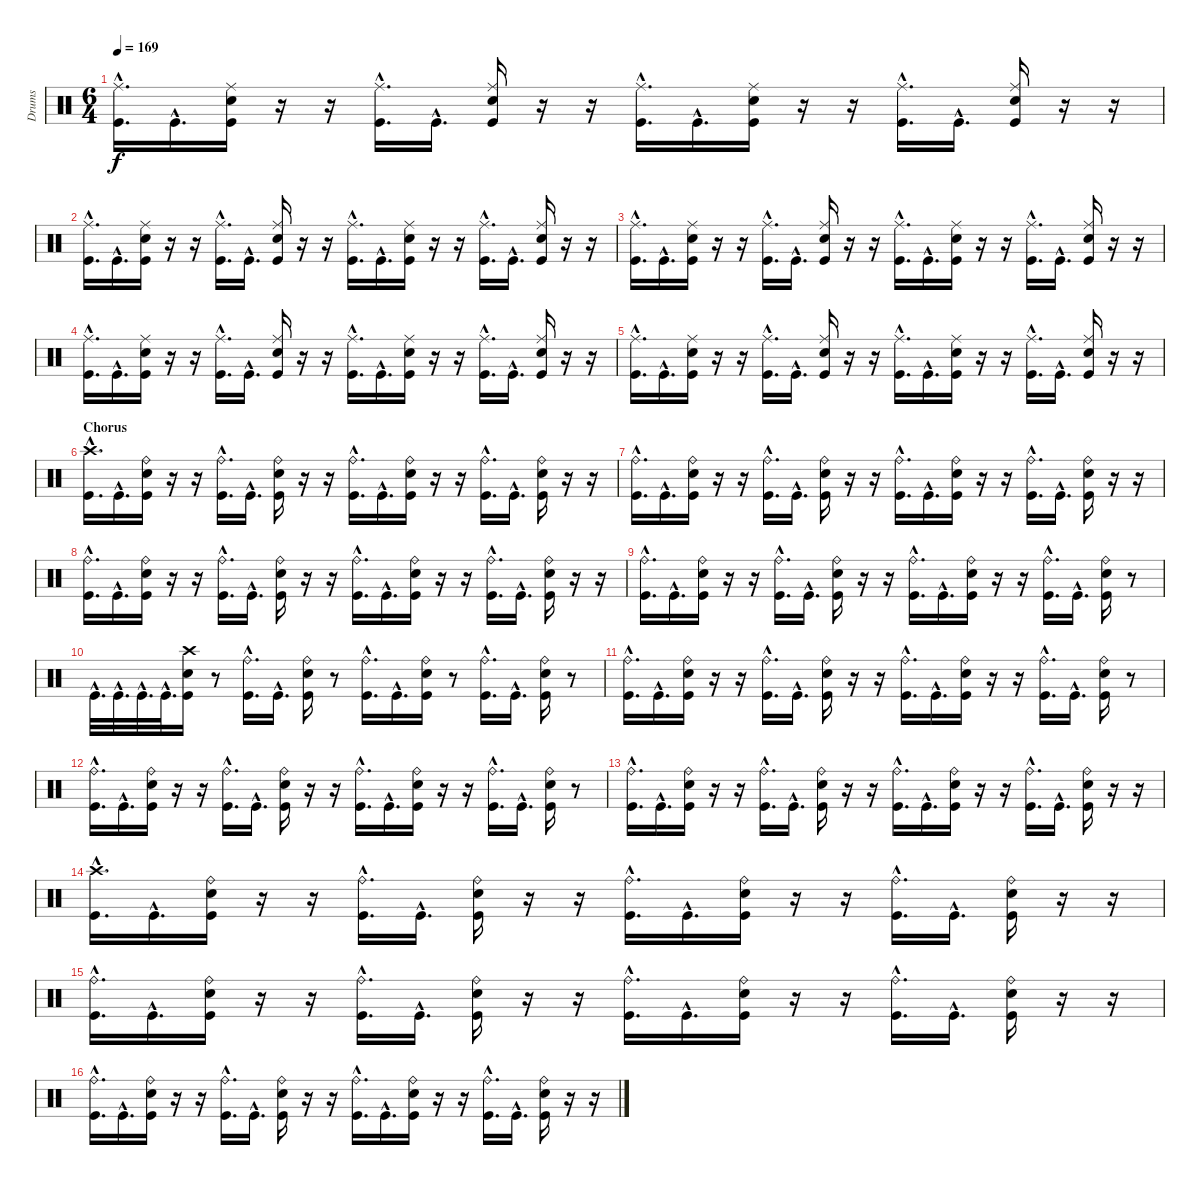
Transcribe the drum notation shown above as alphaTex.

\track ("Drums" "Drums") {instrument percussion}
\staff {score}
\articulation defaults
\ts (6 4)
\tempo 169
\clef neutral
\ks c
("Kick (hit)"{hac} "Ride (middle)"{hac}).16{d dy f} "Kick (hit)"{hac}.16{d} ("Kick (hit)" "Electric Snare (hit)" "Ride (middle)").16 r.16 r.16 ("Kick (hit)"{hac} "Ride (middle)"{hac}).16{d} "Kick (hit)"{hac}.16{d} ("Kick (hit)" "Electric Snare (hit)" "Ride (middle)").16 r.16 r.16 ("Kick (hit)"{hac} "Ride (middle)"{hac}).16{d} "Kick (hit)"{hac}.16{d} ("Kick (hit)" "Electric Snare (hit)" "Ride (middle)").16 r.16 r.16 ("Kick (hit)"{hac} "Ride (middle)"{hac}).16{d} "Kick (hit)"{hac}.16{d} ("Kick (hit)" "Electric Snare (hit)" "Ride (middle)").16 r.16 r.16 |
("Kick (hit)"{hac} "Ride (middle)"{hac}).16{d} "Kick (hit)"{hac}.16{d} ("Kick (hit)" "Electric Snare (hit)" "Ride (middle)").16 r.16 r.16 ("Kick (hit)"{hac} "Ride (middle)"{hac}).16{d} "Kick (hit)"{hac}.16{d} ("Kick (hit)" "Electric Snare (hit)" "Ride (middle)").16 r.16 r.16 ("Kick (hit)"{hac} "Ride (middle)"{hac}).16{d} "Kick (hit)"{hac}.16{d} ("Kick (hit)" "Electric Snare (hit)" "Ride (middle)").16 r.16 r.16 ("Kick (hit)"{hac} "Ride (middle)"{hac}).16{d} "Kick (hit)"{hac}.16{d} ("Kick (hit)" "Electric Snare (hit)" "Ride (middle)").16 r.16 r.16 |
("Kick (hit)"{hac} "Ride (middle)"{hac}).16{d} "Kick (hit)"{hac}.16{d} ("Kick (hit)" "Electric Snare (hit)" "Ride (middle)").16 r.16 r.16 ("Kick (hit)"{hac} "Ride (middle)"{hac}).16{d} "Kick (hit)"{hac}.16{d} ("Kick (hit)" "Electric Snare (hit)" "Ride (middle)").16 r.16 r.16 ("Kick (hit)"{hac} "Ride (middle)"{hac}).16{d} "Kick (hit)"{hac}.16{d} ("Kick (hit)" "Electric Snare (hit)" "Ride (middle)").16 r.16 r.16 ("Kick (hit)"{hac} "Ride (middle)"{hac}).16{d} "Kick (hit)"{hac}.16{d} ("Kick (hit)" "Electric Snare (hit)" "Ride (middle)").16 r.16 r.16 |
("Kick (hit)"{hac} "Ride (middle)"{hac}).16{d} "Kick (hit)"{hac}.16{d} ("Kick (hit)" "Electric Snare (hit)" "Ride (middle)").16 r.16 r.16 ("Kick (hit)"{hac} "Ride (middle)"{hac}).16{d} "Kick (hit)"{hac}.16{d} ("Kick (hit)" "Electric Snare (hit)" "Ride (middle)").16 r.16 r.16 ("Kick (hit)"{hac} "Ride (middle)"{hac}).16{d} "Kick (hit)"{hac}.16{d} ("Kick (hit)" "Electric Snare (hit)" "Ride (middle)").16 r.16 r.16 ("Kick (hit)"{hac} "Ride (middle)"{hac}).16{d} "Kick (hit)"{hac}.16{d} ("Kick (hit)" "Electric Snare (hit)" "Ride (middle)").16 r.16 r.16 |
("Kick (hit)"{hac} "Ride (middle)"{hac}).16{d} "Kick (hit)"{hac}.16{d} ("Kick (hit)" "Electric Snare (hit)" "Ride (middle)").16 r.16 r.16 ("Kick (hit)"{hac} "Ride (middle)"{hac}).16{d} "Kick (hit)"{hac}.16{d} ("Kick (hit)" "Electric Snare (hit)" "Ride (middle)").16 r.16 r.16 ("Kick (hit)"{hac} "Ride (middle)"{hac}).16{d} "Kick (hit)"{hac}.16{d} ("Kick (hit)" "Electric Snare (hit)" "Ride (middle)").16 r.16 r.16 ("Kick (hit)"{hac} "Ride (middle)"{hac}).16{d} "Kick (hit)"{hac}.16{d} ("Kick (hit)" "Electric Snare (hit)" "Ride (middle)").16 r.16 r.16 |
\section ("" "Chorus")
("Kick (hit)"{hac} "Crash high (hit)"{hac}).16{d} "Kick (hit)"{hac}.16{d} ("Kick (hit)" "Electric Snare (hit)" "Ride (bell)").16 r.16 r.16 ("Kick (hit)"{hac} "Ride (bell)"{hac}).16{d} "Kick (hit)"{hac}.16{d} ("Kick (hit)" "Electric Snare (hit)" "Ride (bell)").16 r.16 r.16 ("Kick (hit)"{hac} "Ride (bell)"{hac}).16{d} "Kick (hit)"{hac}.16{d} ("Kick (hit)" "Electric Snare (hit)" "Ride (bell)").16 r.16 r.16 ("Kick (hit)"{hac} "Ride (bell)"{hac}).16{d} "Kick (hit)"{hac}.16{d} ("Kick (hit)" "Electric Snare (hit)" "Ride (bell)").16 r.16 r.16 |
("Kick (hit)"{hac} "Ride (bell)"{hac}).16{d} "Kick (hit)"{hac}.16{d} ("Kick (hit)" "Electric Snare (hit)" "Ride (bell)").16 r.16 r.16 ("Kick (hit)"{hac} "Ride (bell)"{hac}).16{d} "Kick (hit)"{hac}.16{d} ("Kick (hit)" "Electric Snare (hit)" "Ride (bell)").16 r.16 r.16 ("Kick (hit)"{hac} "Ride (bell)"{hac}).16{d} "Kick (hit)"{hac}.16{d} ("Kick (hit)" "Electric Snare (hit)" "Ride (bell)").16 r.16 r.16 ("Kick (hit)"{hac} "Ride (bell)"{hac}).16{d} "Kick (hit)"{hac}.16{d} ("Kick (hit)" "Electric Snare (hit)" "Ride (bell)").16 r.16 r.16 |
("Kick (hit)"{hac} "Ride (bell)"{hac}).16{d} "Kick (hit)"{hac}.16{d} ("Kick (hit)" "Electric Snare (hit)" "Ride (bell)").16 r.16 r.16 ("Kick (hit)"{hac} "Ride (bell)"{hac}).16{d} "Kick (hit)"{hac}.16{d} ("Kick (hit)" "Electric Snare (hit)" "Ride (bell)").16 r.16 r.16 ("Kick (hit)"{hac} "Ride (bell)"{hac}).16{d} "Kick (hit)"{hac}.16{d} ("Kick (hit)" "Electric Snare (hit)" "Ride (bell)").16 r.16 r.16 ("Kick (hit)"{hac} "Ride (bell)"{hac}).16{d} "Kick (hit)"{hac}.16{d} ("Kick (hit)" "Electric Snare (hit)" "Ride (bell)").16 r.16 r.16 |
("Kick (hit)"{hac} "Ride (bell)"{hac}).16{d} "Kick (hit)"{hac}.16{d} ("Kick (hit)" "Electric Snare (hit)" "Ride (bell)").16 r.16 r.16 ("Kick (hit)"{hac} "Ride (bell)"{hac}).16{d} "Kick (hit)"{hac}.16{d} ("Kick (hit)" "Electric Snare (hit)" "Ride (bell)").16 r.16 r.16 ("Kick (hit)"{hac} "Ride (bell)"{hac}).16{d} "Kick (hit)"{hac}.16{d} ("Kick (hit)" "Electric Snare (hit)" "Ride (bell)").16 r.16 r.16 ("Kick (hit)"{hac} "Ride (bell)"{hac}).16{d} "Kick (hit)"{hac}.16{d} ("Kick (hit)" "Electric Snare (hit)" "Ride (bell)").16 r.8 |
"Kick (hit)"{hac}.32{d} "Kick (hit)"{hac}.32{d} "Kick (hit)"{hac}.32{d} "Kick (hit)"{hac}.32{d} ("Kick (hit)" "Electric Snare (hit)" "Crash high (hit)").16 r.8 ("Kick (hit)"{hac} "Ride (bell)"{hac}).16{d} "Kick (hit)"{hac}.16{d} ("Kick (hit)" "Electric Snare (hit)" "Ride (bell)").16 r.8 ("Kick (hit)"{hac} "Ride (bell)"{hac}).16{d} "Kick (hit)"{hac}.16{d} ("Kick (hit)" "Electric Snare (hit)" "Ride (bell)").16 r.8 ("Kick (hit)"{hac} "Ride (bell)"{hac}).16{d} "Kick (hit)"{hac}.16{d} ("Kick (hit)" "Electric Snare (hit)" "Ride (bell)").16 r.8 |
("Kick (hit)"{hac} "Ride (bell)"{hac}).16{d} "Kick (hit)"{hac}.16{d} ("Kick (hit)" "Electric Snare (hit)" "Ride (bell)").16 r.16 r.16 ("Kick (hit)"{hac} "Ride (bell)"{hac}).16{d} "Kick (hit)"{hac}.16{d} ("Kick (hit)" "Electric Snare (hit)" "Ride (bell)").16 r.16 r.16 ("Kick (hit)"{hac} "Ride (bell)"{hac}).16{d} "Kick (hit)"{hac}.16{d} ("Kick (hit)" "Electric Snare (hit)" "Ride (bell)").16 r.16 r.16 ("Kick (hit)"{hac} "Ride (bell)"{hac}).16{d} "Kick (hit)"{hac}.16{d} ("Kick (hit)" "Electric Snare (hit)" "Ride (bell)").16 r.8 |
("Kick (hit)"{hac} "Ride (bell)"{hac}).16{d} "Kick (hit)"{hac}.16{d} ("Kick (hit)" "Electric Snare (hit)" "Ride (bell)").16 r.16 r.16 ("Kick (hit)"{hac} "Ride (bell)"{hac}).16{d} "Kick (hit)"{hac}.16{d} ("Kick (hit)" "Electric Snare (hit)" "Ride (bell)").16 r.16 r.16 ("Kick (hit)"{hac} "Ride (bell)"{hac}).16{d} "Kick (hit)"{hac}.16{d} ("Kick (hit)" "Electric Snare (hit)" "Ride (bell)").16 r.16 r.16 ("Kick (hit)"{hac} "Ride (bell)"{hac}).16{d} "Kick (hit)"{hac}.16{d} ("Kick (hit)" "Electric Snare (hit)" "Ride (bell)").16 r.8 |
("Kick (hit)"{hac} "Ride (bell)"{hac}).16{d} "Kick (hit)"{hac}.16{d} ("Kick (hit)" "Electric Snare (hit)" "Ride (bell)").16 r.16 r.16 ("Kick (hit)"{hac} "Ride (bell)"{hac}).16{d} "Kick (hit)"{hac}.16{d} ("Kick (hit)" "Electric Snare (hit)" "Ride (bell)").16 r.16 r.16 ("Kick (hit)"{hac} "Ride (bell)"{hac}).16{d} "Kick (hit)"{hac}.16{d} ("Kick (hit)" "Electric Snare (hit)" "Ride (bell)").16 r.16 r.16 ("Kick (hit)"{hac} "Ride (bell)"{hac}).16{d} "Kick (hit)"{hac}.16{d} ("Kick (hit)" "Electric Snare (hit)" "Ride (bell)").16 r.16 r.16 |
("Kick (hit)"{hac} "Crash high (hit)"{hac}).16{d} "Kick (hit)"{hac}.16{d} ("Kick (hit)" "Electric Snare (hit)" "Ride (bell)").16 r.16 r.16 ("Kick (hit)"{hac} "Ride (bell)"{hac}).16{d} "Kick (hit)"{hac}.16{d} ("Kick (hit)" "Electric Snare (hit)" "Ride (bell)").16 r.16 r.16 ("Kick (hit)"{hac} "Ride (bell)"{hac}).16{d} "Kick (hit)"{hac}.16{d} ("Kick (hit)" "Electric Snare (hit)" "Ride (bell)").16 r.16 r.16 ("Kick (hit)"{hac} "Ride (bell)"{hac}).16{d} "Kick (hit)"{hac}.16{d} ("Kick (hit)" "Electric Snare (hit)" "Ride (bell)").16 r.16 r.16 |
("Kick (hit)"{hac} "Ride (bell)"{hac}).16{d} "Kick (hit)"{hac}.16{d} ("Kick (hit)" "Electric Snare (hit)" "Ride (bell)").16 r.16 r.16 ("Kick (hit)"{hac} "Ride (bell)"{hac}).16{d} "Kick (hit)"{hac}.16{d} ("Kick (hit)" "Electric Snare (hit)" "Ride (bell)").16 r.16 r.16 ("Kick (hit)"{hac} "Ride (bell)"{hac}).16{d} "Kick (hit)"{hac}.16{d} ("Kick (hit)" "Electric Snare (hit)" "Ride (bell)").16 r.16 r.16 ("Kick (hit)"{hac} "Ride (bell)"{hac}).16{d} "Kick (hit)"{hac}.16{d} ("Kick (hit)" "Electric Snare (hit)" "Ride (bell)").16 r.16 r.16 |
("Kick (hit)"{hac} "Ride (bell)"{hac}).16{d} "Kick (hit)"{hac}.16{d} ("Kick (hit)" "Electric Snare (hit)" "Ride (bell)").16 r.16 r.16 ("Kick (hit)"{hac} "Ride (bell)"{hac}).16{d} "Kick (hit)"{hac}.16{d} ("Kick (hit)" "Electric Snare (hit)" "Ride (bell)").16 r.16 r.16 ("Kick (hit)"{hac} "Ride (bell)"{hac}).16{d} "Kick (hit)"{hac}.16{d} ("Kick (hit)" "Electric Snare (hit)" "Ride (bell)").16 r.16 r.16 ("Kick (hit)"{hac} "Ride (bell)"{hac}).16{d} "Kick (hit)"{hac}.16{d} ("Kick (hit)" "Electric Snare (hit)" "Ride (bell)").16 r.16 r.16
